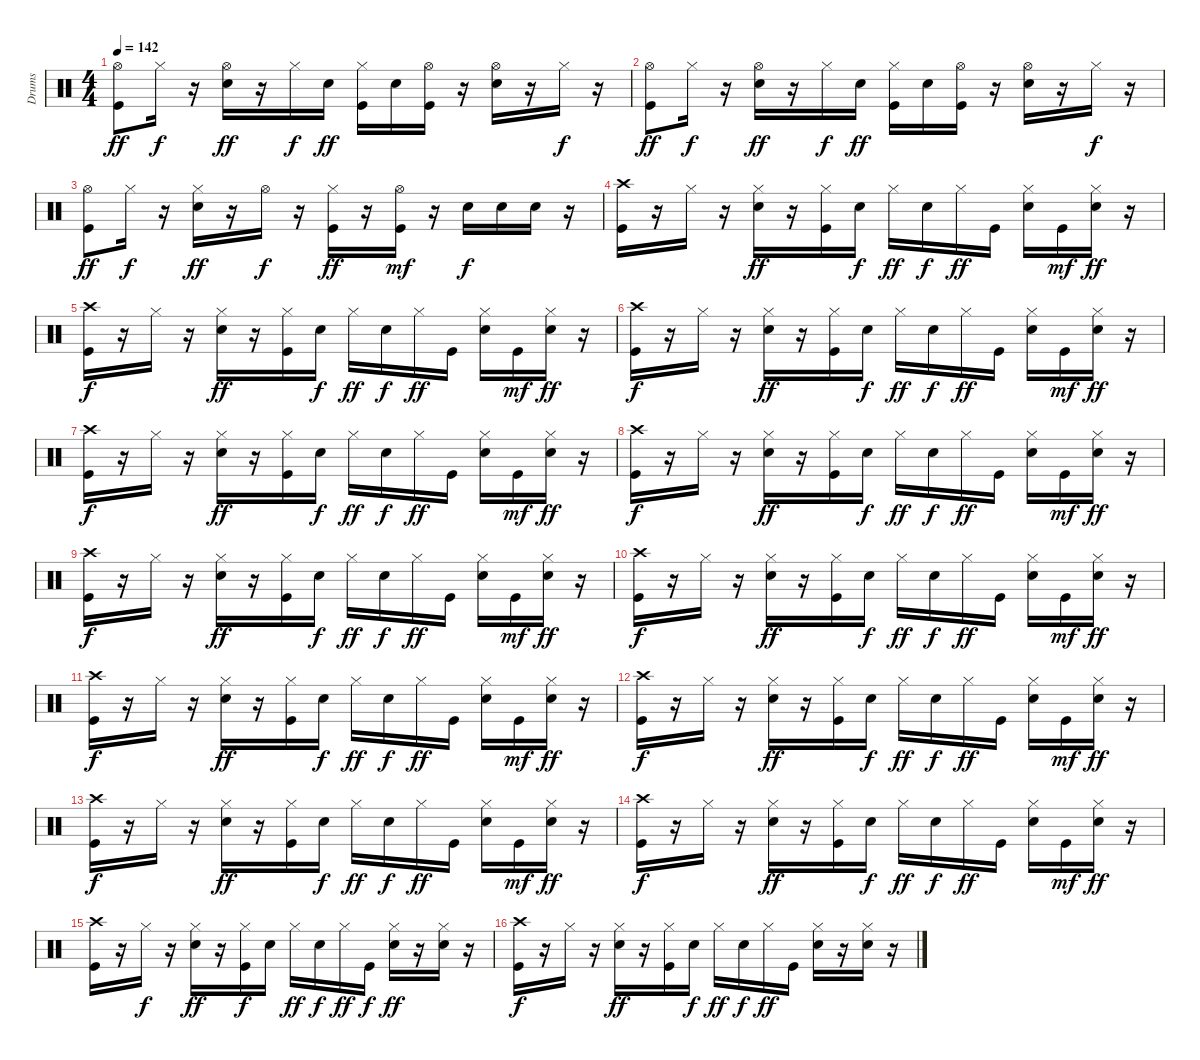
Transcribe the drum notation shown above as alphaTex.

\track ("Drums" "Drums") {instrument percussion}
\staff {score}
\articulation defaults
\ts (4 4)
\tempo 142
\clef neutral
\ks c
("Kick (hit)" "Hi-Hat (open)").8{dy ff} "Hi-Hat (closed)".16{dy f} r.16 ("Hi-Hat (open)" "Electric Snare (hit)").16{dy ff} r.16 "Hi-Hat (closed)".16{dy f} "Electric Snare (hit)".16{dy ff} ("Kick (hit)" "Hi-Hat (closed)").16 "Electric Snare (hit)".16 ("Kick (hit)" "Hi-Hat (open)").16 r.16 ("Electric Snare (hit)" "Hi-Hat (open)").16 r.16 "Hi-Hat (closed)".16{dy f} r.16 |
("Kick (hit)" "Hi-Hat (open)").8{dy ff} "Hi-Hat (closed)".16{dy f} r.16 ("Hi-Hat (open)" "Electric Snare (hit)").16{dy ff} r.16 "Hi-Hat (closed)".16{dy f} "Electric Snare (hit)".16{dy ff} ("Kick (hit)" "Hi-Hat (closed)").16 "Electric Snare (hit)".16 ("Kick (hit)" "Hi-Hat (open)").16 r.16 ("Electric Snare (hit)" "Hi-Hat (open)").16 r.16 "Hi-Hat (closed)".16{dy f} r.16 |
("Kick (hit)" "Hi-Hat (open)").8{dy ff} "Hi-Hat (closed)".16{dy f} r.16 ("Electric Snare (hit)" "Hi-Hat (closed)").16{dy ff} r.16 "Hi-Hat (open)".16{dy f} r.16 ("Kick (hit)" "Hi-Hat (closed)").16{dy ff} r.16 ("Kick (hit)" "Hi-Hat (open)").16{dy mf} r.16 "Electric Snare (hit)".16{dy f} "Electric Snare (hit)".16 "Electric Snare (hit)".16 r.16 |
("Crash high (hit)" "Kick (hit)").16 r.16 "Hi-Hat (closed)".16 r.16 ("Electric Snare (hit)" "Hi-Hat (closed)").16{dy ff} r.16 ("Kick (hit)" "Hi-Hat (closed)").16 "Electric Snare (hit)".16{dy f} "Hi-Hat (closed)".16{dy ff} "Electric Snare (hit)".16{dy f} "Hi-Hat (closed)".16{dy ff} "Kick (hit)".16 ("Hi-Hat (closed)" "Electric Snare (hit)").16 "Kick (hit)".16{dy mf} ("Hi-Hat (closed)" "Electric Snare (hit)").16{dy ff} r.16 |
("Crash high (hit)" "Kick (hit)").16{dy f} r.16 "Hi-Hat (closed)".16 r.16 ("Electric Snare (hit)" "Hi-Hat (closed)").16{dy ff} r.16 ("Kick (hit)" "Hi-Hat (closed)").16 "Electric Snare (hit)".16{dy f} "Hi-Hat (closed)".16{dy ff} "Electric Snare (hit)".16{dy f} "Hi-Hat (closed)".16{dy ff} "Kick (hit)".16 ("Hi-Hat (closed)" "Electric Snare (hit)").16 "Kick (hit)".16{dy mf} ("Hi-Hat (closed)" "Electric Snare (hit)").16{dy ff} r.16 |
("Crash high (hit)" "Kick (hit)").16{dy f} r.16 "Hi-Hat (closed)".16 r.16 ("Electric Snare (hit)" "Hi-Hat (closed)").16{dy ff} r.16 ("Kick (hit)" "Hi-Hat (closed)").16 "Electric Snare (hit)".16{dy f} "Hi-Hat (closed)".16{dy ff} "Electric Snare (hit)".16{dy f} "Hi-Hat (closed)".16{dy ff} "Kick (hit)".16 ("Hi-Hat (closed)" "Electric Snare (hit)").16 "Kick (hit)".16{dy mf} ("Hi-Hat (closed)" "Electric Snare (hit)").16{dy ff} r.16 |
("Crash high (hit)" "Kick (hit)").16{dy f} r.16 "Hi-Hat (closed)".16 r.16 ("Electric Snare (hit)" "Hi-Hat (closed)").16{dy ff} r.16 ("Kick (hit)" "Hi-Hat (closed)").16 "Electric Snare (hit)".16{dy f} "Hi-Hat (closed)".16{dy ff} "Electric Snare (hit)".16{dy f} "Hi-Hat (closed)".16{dy ff} "Kick (hit)".16 ("Hi-Hat (closed)" "Electric Snare (hit)").16 "Kick (hit)".16{dy mf} ("Hi-Hat (closed)" "Electric Snare (hit)").16{dy ff} r.16 |
("Crash high (hit)" "Kick (hit)").16{dy f} r.16 "Hi-Hat (closed)".16 r.16 ("Electric Snare (hit)" "Hi-Hat (closed)").16{dy ff} r.16 ("Kick (hit)" "Hi-Hat (closed)").16 "Electric Snare (hit)".16{dy f} "Hi-Hat (closed)".16{dy ff} "Electric Snare (hit)".16{dy f} "Hi-Hat (closed)".16{dy ff} "Kick (hit)".16 ("Hi-Hat (closed)" "Electric Snare (hit)").16 "Kick (hit)".16{dy mf} ("Hi-Hat (closed)" "Electric Snare (hit)").16{dy ff} r.16 |
("Crash high (hit)" "Kick (hit)").16{dy f} r.16 "Hi-Hat (closed)".16 r.16 ("Electric Snare (hit)" "Hi-Hat (closed)").16{dy ff} r.16 ("Kick (hit)" "Hi-Hat (closed)").16 "Electric Snare (hit)".16{dy f} "Hi-Hat (closed)".16{dy ff} "Electric Snare (hit)".16{dy f} "Hi-Hat (closed)".16{dy ff} "Kick (hit)".16 ("Hi-Hat (closed)" "Electric Snare (hit)").16 "Kick (hit)".16{dy mf} ("Hi-Hat (closed)" "Electric Snare (hit)").16{dy ff} r.16 |
("Crash high (hit)" "Kick (hit)").16{dy f} r.16 "Hi-Hat (closed)".16 r.16 ("Electric Snare (hit)" "Hi-Hat (closed)").16{dy ff} r.16 ("Kick (hit)" "Hi-Hat (closed)").16 "Electric Snare (hit)".16{dy f} "Hi-Hat (closed)".16{dy ff} "Electric Snare (hit)".16{dy f} "Hi-Hat (closed)".16{dy ff} "Kick (hit)".16 ("Hi-Hat (closed)" "Electric Snare (hit)").16 "Kick (hit)".16{dy mf} ("Hi-Hat (closed)" "Electric Snare (hit)").16{dy ff} r.16 |
("Crash high (hit)" "Kick (hit)").16{dy f} r.16 "Hi-Hat (closed)".16 r.16 ("Electric Snare (hit)" "Hi-Hat (closed)").16{dy ff} r.16 ("Kick (hit)" "Hi-Hat (closed)").16 "Electric Snare (hit)".16{dy f} "Hi-Hat (closed)".16{dy ff} "Electric Snare (hit)".16{dy f} "Hi-Hat (closed)".16{dy ff} "Kick (hit)".16 ("Hi-Hat (closed)" "Electric Snare (hit)").16 "Kick (hit)".16{dy mf} ("Hi-Hat (closed)" "Electric Snare (hit)").16{dy ff} r.16 |
("Crash high (hit)" "Kick (hit)").16{dy f} r.16 "Hi-Hat (closed)".16 r.16 ("Electric Snare (hit)" "Hi-Hat (closed)").16{dy ff} r.16 ("Kick (hit)" "Hi-Hat (closed)").16 "Electric Snare (hit)".16{dy f} "Hi-Hat (closed)".16{dy ff} "Electric Snare (hit)".16{dy f} "Hi-Hat (closed)".16{dy ff} "Kick (hit)".16 ("Hi-Hat (closed)" "Electric Snare (hit)").16 "Kick (hit)".16{dy mf} ("Hi-Hat (closed)" "Electric Snare (hit)").16{dy ff} r.16 |
("Crash high (hit)" "Kick (hit)").16{dy f} r.16 "Hi-Hat (closed)".16 r.16 ("Electric Snare (hit)" "Hi-Hat (closed)").16{dy ff} r.16 ("Kick (hit)" "Hi-Hat (closed)").16 "Electric Snare (hit)".16{dy f} "Hi-Hat (closed)".16{dy ff} "Electric Snare (hit)".16{dy f} "Hi-Hat (closed)".16{dy ff} "Kick (hit)".16 ("Hi-Hat (closed)" "Electric Snare (hit)").16 "Kick (hit)".16{dy mf} ("Hi-Hat (closed)" "Electric Snare (hit)").16{dy ff} r.16 |
("Crash high (hit)" "Kick (hit)").16{dy f} r.16 "Hi-Hat (closed)".16 r.16 ("Electric Snare (hit)" "Hi-Hat (closed)").16{dy ff} r.16 ("Kick (hit)" "Hi-Hat (closed)").16 "Electric Snare (hit)".16{dy f} "Hi-Hat (closed)".16{dy ff} "Electric Snare (hit)".16{dy f} "Hi-Hat (closed)".16{dy ff} "Kick (hit)".16 ("Hi-Hat (closed)" "Electric Snare (hit)").16 "Kick (hit)".16{dy mf} ("Hi-Hat (closed)" "Electric Snare (hit)").16{dy ff} r.16 |
("Kick (hit)" "Crash high (hit)").16 r.16 "Hi-Hat (closed)".16{dy f} r.16 ("Electric Snare (hit)" "Hi-Hat (closed)").16{dy ff} r.16 ("Hi-Hat (closed)" "Kick (hit)").16{dy f} "Electric Snare (hit)".16 "Hi-Hat (closed)".16{dy ff} "Electric Snare (hit)".16{dy f} "Hi-Hat (closed)".16{dy ff} "Kick (hit)".16{dy f} ("Hi-Hat (closed)" "Electric Snare (hit)").16{dy ff} r.16 ("Hi-Hat (closed)" "Electric Snare (hit)").16 r.16 |
("Crash high (hit)" "Kick (hit)").16{dy f} r.16 "Hi-Hat (closed)".16 r.16 ("Electric Snare (hit)" "Hi-Hat (closed)").16{dy ff} r.16 ("Kick (hit)" "Hi-Hat (closed)").16 "Electric Snare (hit)".16{dy f} "Hi-Hat (closed)".16{dy ff} "Electric Snare (hit)".16{dy f} "Hi-Hat (closed)".16{dy ff} "Kick (hit)".16 ("Hi-Hat (closed)" "Electric Snare (hit)").16 r.16 ("Hi-Hat (closed)" "Electric Snare (hit)").16 r.16
